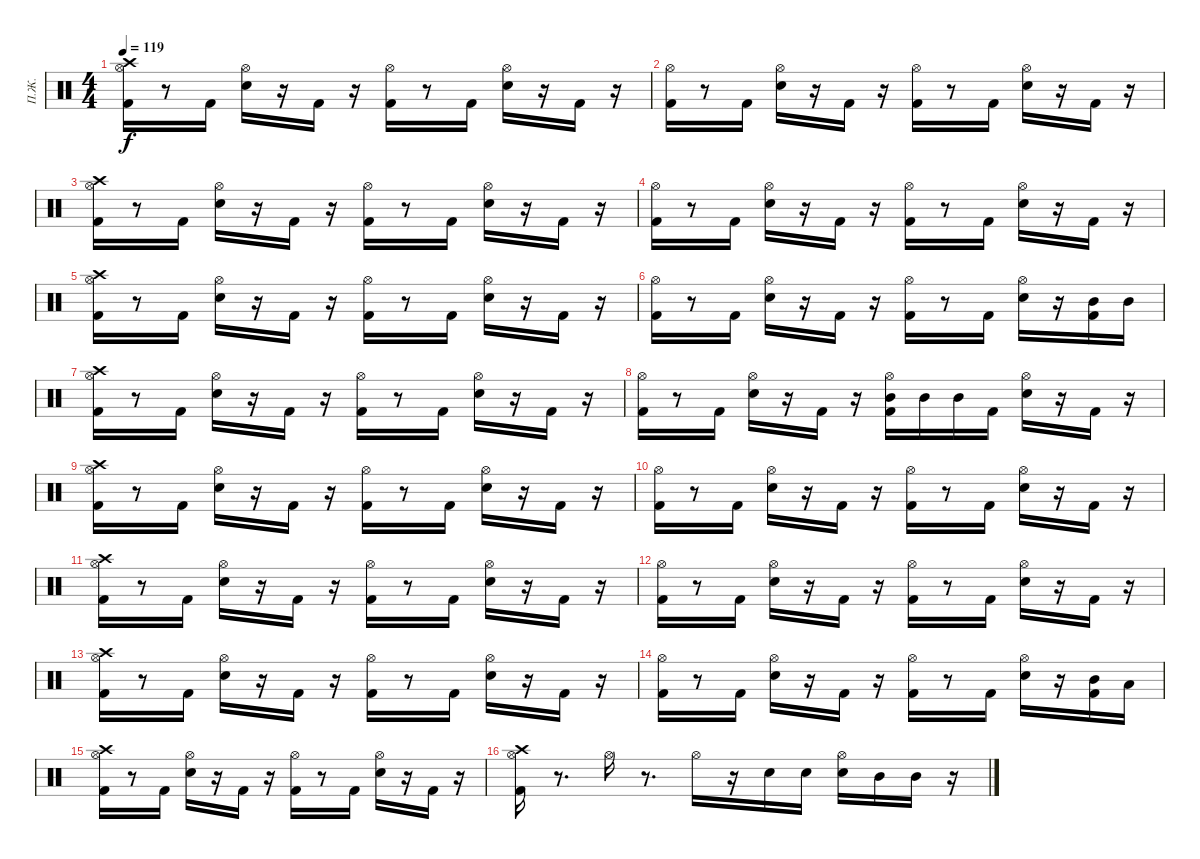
\track ("П.Ж." "П.Ж.") {instrument percussion}
\staff {score}
\articulation defaults
\ts (4 4)
\tempo 119
\clef neutral
\ks c
("Hi-Hat (open)" "Crash high (hit)" "Kick (hit) 2").16{dy f} r.8 "Kick (hit) 2".16 ("Hi-Hat (open)" "Electric Snare (hit)").16 r.16 "Kick (hit) 2".16 r.16 ("Hi-Hat (open)" "Kick (hit) 2").16 r.8 "Kick (hit) 2".16 ("Hi-Hat (open)" "Electric Snare (hit)").16 r.16 "Kick (hit) 2".16 r.16 |
("Hi-Hat (open)" "Kick (hit) 2").16 r.8 "Kick (hit) 2".16 ("Hi-Hat (open)" "Electric Snare (hit)").16 r.16 "Kick (hit) 2".16 r.16 ("Hi-Hat (open)" "Kick (hit) 2").16 r.8 "Kick (hit) 2".16 ("Electric Snare (hit)" "Hi-Hat (open)").16 r.16 "Kick (hit) 2".16 r.16 |
("Kick (hit) 2" "Crash high (hit)" "Hi-Hat (open)").16 r.8 "Kick (hit) 2".16 ("Hi-Hat (open)" "Electric Snare (hit)").16 r.16 "Kick (hit) 2".16 r.16 ("Hi-Hat (open)" "Kick (hit) 2").16 r.8 "Kick (hit) 2".16 ("Electric Snare (hit)" "Hi-Hat (open)").16 r.16 "Kick (hit) 2".16 r.16 |
("Kick (hit) 2" "Hi-Hat (open)").16 r.8 "Kick (hit) 2".16 ("Hi-Hat (open)" "Electric Snare (hit)").16 r.16 "Kick (hit) 2".16 r.16 ("Hi-Hat (open)" "Kick (hit) 2").16 r.8 "Kick (hit) 2".16 ("Electric Snare (hit)" "Hi-Hat (open)").16 r.16 "Kick (hit) 2".16 r.16 |
("Hi-Hat (open)" "Crash high (hit)" "Kick (hit) 2").16 r.8 "Kick (hit) 2".16 ("Hi-Hat (open)" "Electric Snare (hit)").16 r.16 "Kick (hit) 2".16 r.16 ("Hi-Hat (open)" "Kick (hit) 2").16 r.8 "Kick (hit) 2".16 ("Hi-Hat (open)" "Electric Snare (hit)").16 r.16 "Kick (hit) 2".16 r.16 |
("Hi-Hat (open)" "Kick (hit) 2").16 r.8 "Kick (hit) 2".16 ("Hi-Hat (open)" "Electric Snare (hit)").16 r.16 "Kick (hit) 2".16 r.16 ("Hi-Hat (open)" "Kick (hit) 2").16 r.8 "Kick (hit) 2".16 ("Electric Snare (hit)" "Hi-Hat (open)").16 r.16 ("Kick (hit) 2" "Mid Tom (hit)").16 "Mid Tom (hit)".16 |
("Kick (hit) 2" "Crash high (hit)" "Hi-Hat (open)").16 r.8 "Kick (hit) 2".16 ("Hi-Hat (open)" "Electric Snare (hit)").16 r.16 "Kick (hit) 2".16 r.16 ("Hi-Hat (open)" "Kick (hit) 2").16 r.8 "Kick (hit) 2".16 ("Electric Snare (hit)" "Hi-Hat (open)").16 r.16 "Kick (hit) 2".16 r.16 |
("Kick (hit) 2" "Hi-Hat (open)").16 r.8 "Kick (hit) 2".16 ("Hi-Hat (open)" "Electric Snare (hit)").16 r.16 "Kick (hit) 2".16 r.16 ("Hi-Hat (open)" "Kick (hit) 2" "Mid Tom (hit)").16 "Mid Tom (hit)".16 "Mid Tom (hit)".16 "Kick (hit) 2".16 ("Electric Snare (hit)" "Hi-Hat (open)").16 r.16 "Kick (hit) 2".16 r.16 |
("Hi-Hat (open)" "Crash high (hit)" "Kick (hit) 2").16 r.8 "Kick (hit) 2".16 ("Hi-Hat (open)" "Electric Snare (hit)").16 r.16 "Kick (hit) 2".16 r.16 ("Hi-Hat (open)" "Kick (hit) 2").16 r.8 "Kick (hit) 2".16 ("Hi-Hat (open)" "Electric Snare (hit)").16 r.16 "Kick (hit) 2".16 r.16 |
("Hi-Hat (open)" "Kick (hit) 2").16 r.8 "Kick (hit) 2".16 ("Hi-Hat (open)" "Electric Snare (hit)").16 r.16 "Kick (hit) 2".16 r.16 ("Hi-Hat (open)" "Kick (hit) 2").16 r.8 "Kick (hit) 2".16 ("Electric Snare (hit)" "Hi-Hat (open)").16 r.16 "Kick (hit) 2".16 r.16 |
("Kick (hit) 2" "Crash high (hit)" "Hi-Hat (open)").16 r.8 "Kick (hit) 2".16 ("Hi-Hat (open)" "Electric Snare (hit)").16 r.16 "Kick (hit) 2".16 r.16 ("Hi-Hat (open)" "Kick (hit) 2").16 r.8 "Kick (hit) 2".16 ("Electric Snare (hit)" "Hi-Hat (open)").16 r.16 "Kick (hit) 2".16 r.16 |
("Kick (hit) 2" "Hi-Hat (open)").16 r.8 "Kick (hit) 2".16 ("Hi-Hat (open)" "Electric Snare (hit)").16 r.16 "Kick (hit) 2".16 r.16 ("Hi-Hat (open)" "Kick (hit) 2").16 r.8 "Kick (hit) 2".16 ("Electric Snare (hit)" "Hi-Hat (open)").16 r.16 "Kick (hit) 2".16 r.16 |
("Hi-Hat (open)" "Crash high (hit)" "Kick (hit) 2").16 r.8 "Kick (hit) 2".16 ("Hi-Hat (open)" "Electric Snare (hit)").16 r.16 "Kick (hit) 2".16 r.16 ("Hi-Hat (open)" "Kick (hit) 2").16 r.8 "Kick (hit) 2".16 ("Hi-Hat (open)" "Electric Snare (hit)").16 r.16 "Kick (hit) 2".16 r.16 |
("Hi-Hat (open)" "Kick (hit) 2").16 r.8 "Kick (hit) 2".16 ("Hi-Hat (open)" "Electric Snare (hit)").16 r.16 "Kick (hit) 2".16 r.16 ("Hi-Hat (open)" "Kick (hit) 2").16 r.8 "Kick (hit) 2".16 ("Electric Snare (hit)" "Hi-Hat (open)").16 r.16 ("Kick (hit) 2" "Mid Tom (hit)").16 "Low Tom (hit)".16 |
("Kick (hit) 2" "Crash high (hit)" "Hi-Hat (open)").16 r.8 "Kick (hit) 2".16 ("Electric Snare (hit)" "Hi-Hat (open)").16 r.16 "Kick (hit) 2".16 r.16 ("Kick (hit) 2" "Hi-Hat (open)").16 r.8 "Kick (hit) 2".16 ("Hi-Hat (open)" "Electric Snare (hit)").16 r.16 "Kick (hit) 2".16 r.16 |
("Hi-Hat (open)" "Kick (hit) 2" "Crash high (hit)").16 r.8{d} "Hi-Hat (open)".16 r.8{d} "Hi-Hat (open)".16 r.16 "Electric Snare (hit)".16 "Electric Snare (hit)".16 ("Hi-Hat (open)" "Electric Snare (hit)").16 "Mid Tom (hit)".16 "Mid Tom (hit)".16 r.16
